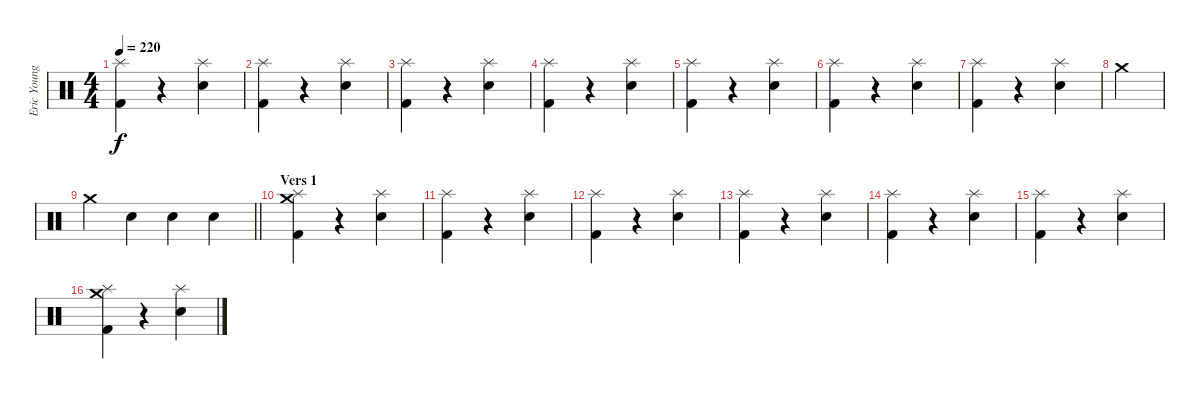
\track ("Eric Young (Drums)" "Eric Young") {instrument percussion}
\staff {score}
\articulation defaults
\ts (4 4)
\tempo 220
\clef neutral
\ks c
("Splash (hit)" "Kick (hit) 2").4{dy f} r.4 ("Splash (hit)" "Snare (hit) 2").4 |
("Splash (hit)" "Kick (hit) 2").4 r.4 ("Splash (hit)" "Snare (hit) 2").4 |
("Splash (hit)" "Kick (hit) 2").4 r.4 ("Splash (hit)" "Snare (hit) 2").4 |
("Splash (hit)" "Kick (hit) 2").4 r.4 ("Splash (hit)" "Snare (hit) 2").4 |
("Splash (hit)" "Kick (hit) 2").4 r.4 ("Splash (hit)" "Snare (hit) 2").4 |
("Splash (hit)" "Kick (hit) 2").4 r.4 ("Splash (hit)" "Snare (hit) 2").4 |
("Splash (hit)" "Kick (hit) 2").4 r.4 ("Splash (hit)" "Snare (hit) 2").4 |
"Crash medium (hit)".4 |
\barLineRight lightlight "Crash medium (hit)".4 "Snare (hit) 2".4 "Snare (hit) 2".4 "Snare (hit) 2".4
|
\section ("" "Vers 1")
("Splash (hit)" "Kick (hit) 2" "Crash medium (hit)").4 r.4 ("Splash (hit)" "Snare (hit) 2").4 |
("Splash (hit)" "Kick (hit) 2").4 r.4 ("Splash (hit)" "Snare (hit) 2").4 |
("Splash (hit)" "Kick (hit) 2").4 r.4 ("Splash (hit)" "Snare (hit) 2").4 |
("Splash (hit)" "Kick (hit) 2").4 r.4 ("Splash (hit)" "Snare (hit) 2").4 |
("Splash (hit)" "Kick (hit) 2").4 r.4 ("Splash (hit)" "Snare (hit) 2").4 |
("Splash (hit)" "Kick (hit) 2").4 r.4 ("Splash (hit)" "Snare (hit) 2").4 |
("Splash (hit)" "Kick (hit) 2" "Crash medium (hit)").4 r.4 ("Splash (hit)" "Snare (hit) 2").4
